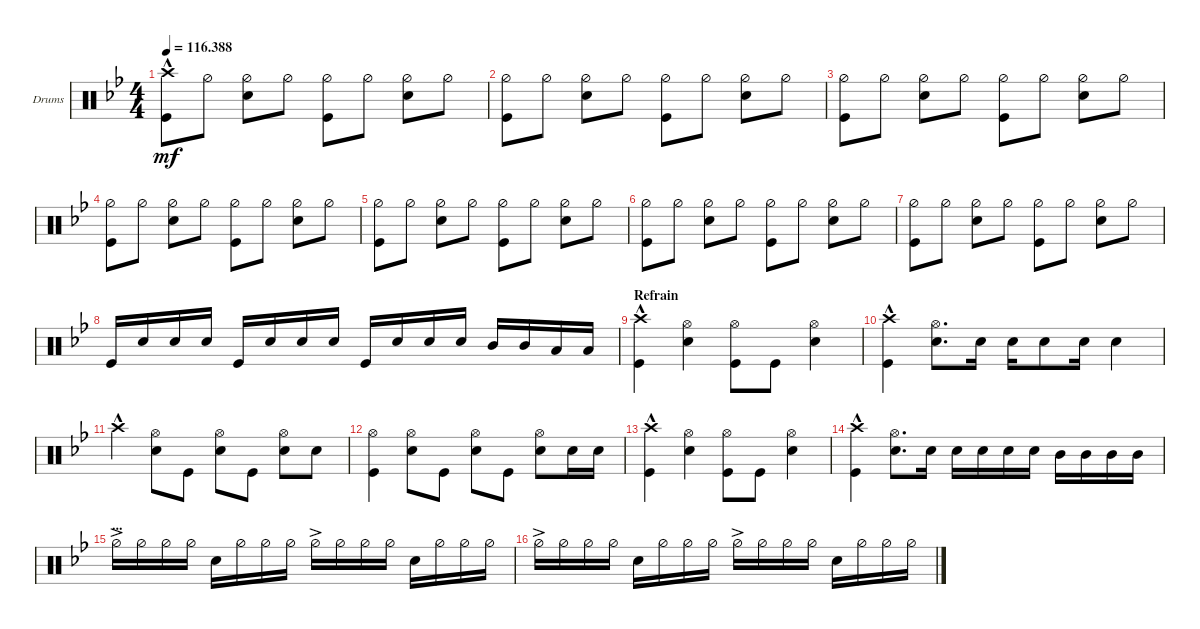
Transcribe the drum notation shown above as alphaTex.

\bracketExtendMode groupsimilarinstruments
\firstSystemTrackNameOrientation horizontal
\otherSystemsTrackNameOrientation horizontal
\track ("Drumkit" "Drums") {instrument percussion}
\staff {score}
\articulation defaults
\ts (4 4)
\tempo
116.388
\accidentals auto
\clef neutral
\ottava regular
\simile none
\ks gminor
("Kick (hit)" "Crash high (hit)"{hac}).8{dy mf} "Hi-Hat (half)".8 ("Hi-Hat (half)" "Snare (hit) 2").8 "Hi-Hat (half)".8 ("Hi-Hat (half)" "Kick (hit)").8 "Hi-Hat (half)".8 ("Hi-Hat (half)" "Snare (hit) 2").8 "Hi-Hat (half)".8 |
("Hi-Hat (half)" "Kick (hit)").8 "Hi-Hat (half)".8 ("Hi-Hat (half)" "Snare (hit) 2").8 "Hi-Hat (half)".8 ("Hi-Hat (half)" "Kick (hit)").8 "Hi-Hat (half)".8 ("Hi-Hat (half)" "Snare (hit) 2").8 "Hi-Hat (half)".8 |
("Hi-Hat (half)" "Kick (hit)").8 "Hi-Hat (half)".8 ("Hi-Hat (half)" "Snare (hit) 2").8 "Hi-Hat (half)".8 ("Hi-Hat (half)" "Kick (hit)").8 "Hi-Hat (half)".8 ("Hi-Hat (half)" "Snare (hit) 2").8 "Hi-Hat (half)".8 |
("Hi-Hat (half)" "Kick (hit)").8 "Hi-Hat (half)".8 ("Hi-Hat (half)" "Snare (hit) 2").8 "Hi-Hat (half)".8 ("Hi-Hat (half)" "Kick (hit)").8 "Hi-Hat (half)".8 ("Hi-Hat (half)" "Snare (hit) 2").8 "Hi-Hat (half)".8 |
("Hi-Hat (half)" "Kick (hit)").8 "Hi-Hat (half)".8 ("Hi-Hat (half)" "Snare (hit) 2").8 "Hi-Hat (half)".8 ("Hi-Hat (half)" "Kick (hit)").8 "Hi-Hat (half)".8 ("Hi-Hat (half)" "Snare (hit) 2").8 "Hi-Hat (half)".8 |
("Hi-Hat (half)" "Kick (hit)").8 "Hi-Hat (half)".8 ("Hi-Hat (half)" "Snare (hit) 2").8 "Hi-Hat (half)".8 ("Hi-Hat (half)" "Kick (hit)").8 "Hi-Hat (half)".8 ("Hi-Hat (half)" "Snare (hit) 2").8 "Hi-Hat (half)".8 |
("Hi-Hat (half)" "Kick (hit)").8 "Hi-Hat (half)".8 ("Hi-Hat (half)" "Snare (hit) 2").8 "Hi-Hat (half)".8 ("Hi-Hat (half)" "Kick (hit)").8 "Hi-Hat (half)".8 ("Hi-Hat (half)" "Snare (hit) 2").8 "Hi-Hat (half)".8 |
"Kick (hit)".16 "Snare (hit) 2".16 "Snare (hit) 2".16 "Snare (hit) 2".16 "Kick (hit)".16 "Snare (hit) 2".16 "Snare (hit) 2".16 "Snare (hit) 2".16 "Kick (hit)".16 "Snare (hit) 2".16 "Snare (hit) 2".16 "Snare (hit) 2".16 "Mid Tom (hit)".16 "Mid Tom (hit)".16 "Low Tom (hit)".16 "Low Tom (hit)".16 |
\section ("" "Refrain")
("Crash high (hit)"{hac} "Kick (hit)").4 ("Hi-Hat (open)" "Snare (hit) 2").4 ("Hi-Hat (open)" "Kick (hit)").8 "Kick (hit)".8 ("Hi-Hat (open)" "Snare (hit) 2").4 |
("Crash high (hit)"{hac} "Kick (hit)").4 ("Hi-Hat (open)" "Snare (hit) 2").8{d} "Snare (hit) 2".16 "Snare (hit) 2".16 "Snare (hit) 2".8 "Snare (hit) 2".16 "Snare (hit) 2".4 |
"Crash high (hit)"{hac}.4 ("Snare (hit) 2" "Hi-Hat (open)").8 "Kick (hit)".8 ("Snare (hit) 2" "Hi-Hat (open)").8 "Kick (hit)".8 ("Snare (hit) 2" "Hi-Hat (open)").8 "Snare (hit) 2".8 |
("Kick (hit)" "Hi-Hat (open)").4 ("Snare (hit) 2" "Hi-Hat (open)").8 "Kick (hit)".8 ("Snare (hit) 2" "Hi-Hat (open)").8 "Kick (hit)".8 ("Snare (hit) 2" "Hi-Hat (open)").8 "Snare (hit) 2".16 "Snare (hit) 2".16 |
("Crash high (hit)"{hac} "Kick (hit)").4 ("Hi-Hat (open)" "Snare (hit) 2").4 ("Hi-Hat (open)" "Kick (hit)").8 "Kick (hit)".8 ("Hi-Hat (open)" "Snare (hit) 2").4 |
("Crash high (hit)"{hac} "Kick (hit)").4 ("Hi-Hat (open)" "Snare (hit) 2").8{d} "Snare (hit) 2".16 "Snare (hit) 2".16 "Snare (hit) 2".16 "Snare (hit) 2".16 "Snare (hit) 2".16 "Mid Tom (hit)".16 "Mid Tom (hit)".16 "Mid Tom (hit)".16 "Mid Tom (hit)".16 |
\section ("" "...")
"Hi-Hat (half)"{ac}.16 "Hi-Hat (half)".16 "Hi-Hat (half)".16 "Hi-Hat (half)".16 "Snare (hit) 2".16 "Hi-Hat (half)".16 "Hi-Hat (half)".16 "Hi-Hat (half)".16 "Hi-Hat (half)"{ac}.16 "Hi-Hat (half)".16 "Hi-Hat (half)".16 "Hi-Hat (half)".16 "Snare (hit) 2".16 "Hi-Hat (half)".16 "Hi-Hat (half)".16 "Hi-Hat (half)".16 |
"Hi-Hat (half)"{ac}.16 "Hi-Hat (half)".16 "Hi-Hat (half)".16 "Hi-Hat (half)".16 "Snare (hit) 2".16 "Hi-Hat (half)".16 "Hi-Hat (half)".16 "Hi-Hat (half)".16 "Hi-Hat (half)"{ac}.16 "Hi-Hat (half)".16 "Hi-Hat (half)".16 "Hi-Hat (half)".16 "Snare (hit) 2".16 "Hi-Hat (half)".16 "Hi-Hat (half)".16 "Hi-Hat (half)".16
